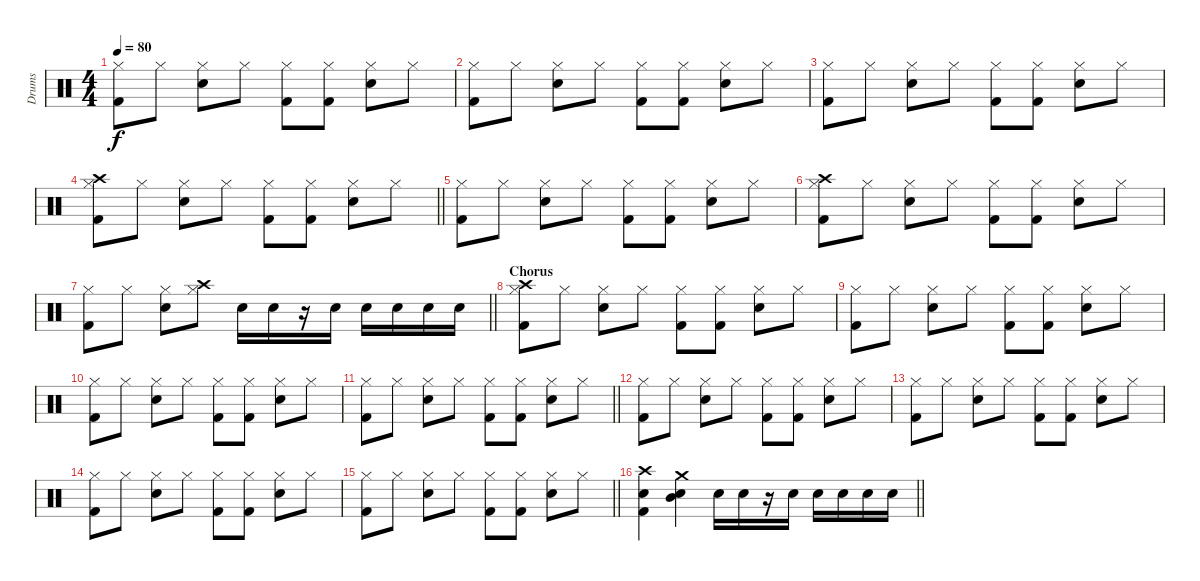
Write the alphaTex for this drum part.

\track ("Drums" "Drums") {instrument percussion}
\staff {score}
\articulation defaults
\ts (4 4)
\tempo 80
\clef neutral
\ks c
("Hi-Hat (closed)" "Kick (hit) 2").8{dy f} "Hi-Hat (closed)".8 ("Hi-Hat (closed)" "Snare (hit) 2").8 "Hi-Hat (closed)".8 ("Hi-Hat (closed)" "Kick (hit) 2").8 ("Hi-Hat (closed)" "Kick (hit) 2").8 ("Hi-Hat (closed)" "Snare (hit) 2").8 "Hi-Hat (closed)".8 |
("Hi-Hat (closed)" "Kick (hit) 2").8 "Hi-Hat (closed)".8 ("Hi-Hat (closed)" "Snare (hit) 2").8 "Hi-Hat (closed)".8 ("Hi-Hat (closed)" "Kick (hit) 2").8 ("Hi-Hat (closed)" "Kick (hit) 2").8 ("Hi-Hat (closed)" "Snare (hit) 2").8 "Hi-Hat (closed)".8 |
("Hi-Hat (closed)" "Kick (hit) 2").8 "Hi-Hat (closed)".8 ("Hi-Hat (closed)" "Snare (hit) 2").8 "Hi-Hat (closed)".8 ("Hi-Hat (closed)" "Kick (hit) 2").8 ("Hi-Hat (closed)" "Kick (hit) 2").8 ("Hi-Hat (closed)" "Snare (hit) 2").8 "Hi-Hat (closed)".8 |
\barLineRight lightlight
("Hi-Hat (closed)" "Crash high (hit)" "Kick (hit) 2").8 "Hi-Hat (closed)".8 ("Hi-Hat (closed)" "Snare (hit) 2").8 "Hi-Hat (closed)".8 ("Hi-Hat (closed)" "Kick (hit) 2").8 ("Hi-Hat (closed)" "Kick (hit) 2").8 ("Hi-Hat (closed)" "Snare (hit) 2").8 "Hi-Hat (closed)".8 |
("Hi-Hat (closed)" "Kick (hit) 2").8 "Hi-Hat (closed)".8 ("Hi-Hat (closed)" "Snare (hit) 2").8 "Hi-Hat (closed)".8 ("Hi-Hat (closed)" "Kick (hit) 2").8 ("Hi-Hat (closed)" "Kick (hit) 2").8 ("Hi-Hat (closed)" "Snare (hit) 2").8 "Hi-Hat (closed)".8 |
("Hi-Hat (closed)" "Crash high (hit)" "Kick (hit) 2").8 "Hi-Hat (closed)".8 ("Hi-Hat (closed)" "Snare (hit) 2").8 "Hi-Hat (closed)".8 ("Hi-Hat (closed)" "Kick (hit) 2").8 ("Hi-Hat (closed)" "Kick (hit) 2").8 ("Hi-Hat (closed)" "Snare (hit) 2").8 "Hi-Hat (closed)".8 |
\barLineRight lightlight
("Hi-Hat (closed)" "Kick (hit) 2").8 "Hi-Hat (closed)".8 ("Hi-Hat (closed)" "Snare (hit) 2").8 ("Hi-Hat (closed)" "Crash high (hit)").8 "Snare (hit) 2".16 "Snare (hit) 2".16 r.16 "Snare (hit) 2".16 "Snare (hit) 2".16 "Snare (hit) 2".16 "Snare (hit) 2".16 "Snare (hit) 2".16 |
\section ("" "Chorus")
("Hi-Hat (closed)" "Crash high (hit)" "Kick (hit) 2").8 "Hi-Hat (closed)".8 ("Hi-Hat (closed)" "Snare (hit) 2").8 "Hi-Hat (closed)".8 ("Hi-Hat (closed)" "Kick (hit) 2").8 ("Hi-Hat (closed)" "Kick (hit) 2").8 ("Hi-Hat (closed)" "Snare (hit) 2").8 "Hi-Hat (closed)".8 |
("Hi-Hat (closed)" "Kick (hit) 2").8 "Hi-Hat (closed)".8 ("Hi-Hat (closed)" "Snare (hit) 2").8 "Hi-Hat (closed)".8 ("Hi-Hat (closed)" "Kick (hit) 2").8 ("Hi-Hat (closed)" "Kick (hit) 2").8 ("Hi-Hat (closed)" "Snare (hit) 2").8 "Hi-Hat (closed)".8 |
("Hi-Hat (closed)" "Kick (hit) 2").8 "Hi-Hat (closed)".8 ("Hi-Hat (closed)" "Snare (hit) 2").8 "Hi-Hat (closed)".8 ("Hi-Hat (closed)" "Kick (hit) 2").8 ("Hi-Hat (closed)" "Kick (hit) 2").8 ("Hi-Hat (closed)" "Snare (hit) 2").8 "Hi-Hat (closed)".8 |
\barLineRight lightlight
("Hi-Hat (closed)" "Kick (hit) 2").8 "Hi-Hat (closed)".8 ("Hi-Hat (closed)" "Snare (hit) 2").8 "Hi-Hat (closed)".8 ("Hi-Hat (closed)" "Kick (hit) 2").8 ("Hi-Hat (closed)" "Kick (hit) 2").8 ("Hi-Hat (closed)" "Snare (hit) 2").8 "Hi-Hat (closed)".8 |
("Hi-Hat (closed)" "Kick (hit) 2").8 "Hi-Hat (closed)".8 ("Hi-Hat (closed)" "Snare (hit) 2").8 "Hi-Hat (closed)".8 ("Hi-Hat (closed)" "Kick (hit) 2").8 ("Hi-Hat (closed)" "Kick (hit) 2").8 ("Hi-Hat (closed)" "Snare (hit) 2").8 "Hi-Hat (closed)".8 |
("Hi-Hat (closed)" "Kick (hit) 2").8 "Hi-Hat (closed)".8 ("Hi-Hat (closed)" "Snare (hit) 2").8 "Hi-Hat (closed)".8 ("Hi-Hat (closed)" "Kick (hit) 2").8 ("Hi-Hat (closed)" "Kick (hit) 2").8 ("Hi-Hat (closed)" "Snare (hit) 2").8 "Hi-Hat (closed)".8 |
("Hi-Hat (closed)" "Kick (hit) 2").8 "Hi-Hat (closed)".8 ("Hi-Hat (closed)" "Snare (hit) 2").8 "Hi-Hat (closed)".8 ("Hi-Hat (closed)" "Kick (hit) 2").8 ("Hi-Hat (closed)" "Kick (hit) 2").8 ("Hi-Hat (closed)" "Snare (hit) 2").8 "Hi-Hat (closed)".8 |
\barLineRight lightlight
("Hi-Hat (closed)" "Kick (hit) 2").8 "Hi-Hat (closed)".8 ("Hi-Hat (closed)" "Snare (hit) 2").8 "Hi-Hat (closed)".8 ("Hi-Hat (closed)" "Kick (hit) 2").8 ("Hi-Hat (closed)" "Kick (hit) 2").8 ("Hi-Hat (closed)" "Snare (hit) 2").8 "Hi-Hat (closed)".8 |
\barLineRight lightlight
("Crash high (hit)" "Kick (hit) 2" "Snare (hit) 2").4 ("Crash medium (hit)" "Snare (hit) 2" "Mid Tom (hit)").4 "Snare (hit) 2".16 "Snare (hit) 2".16 r.16 "Snare (hit) 2".16 "Snare (hit) 2".16 "Snare (hit) 2".16 "Snare (hit) 2".16 "Snare (hit) 2".16
